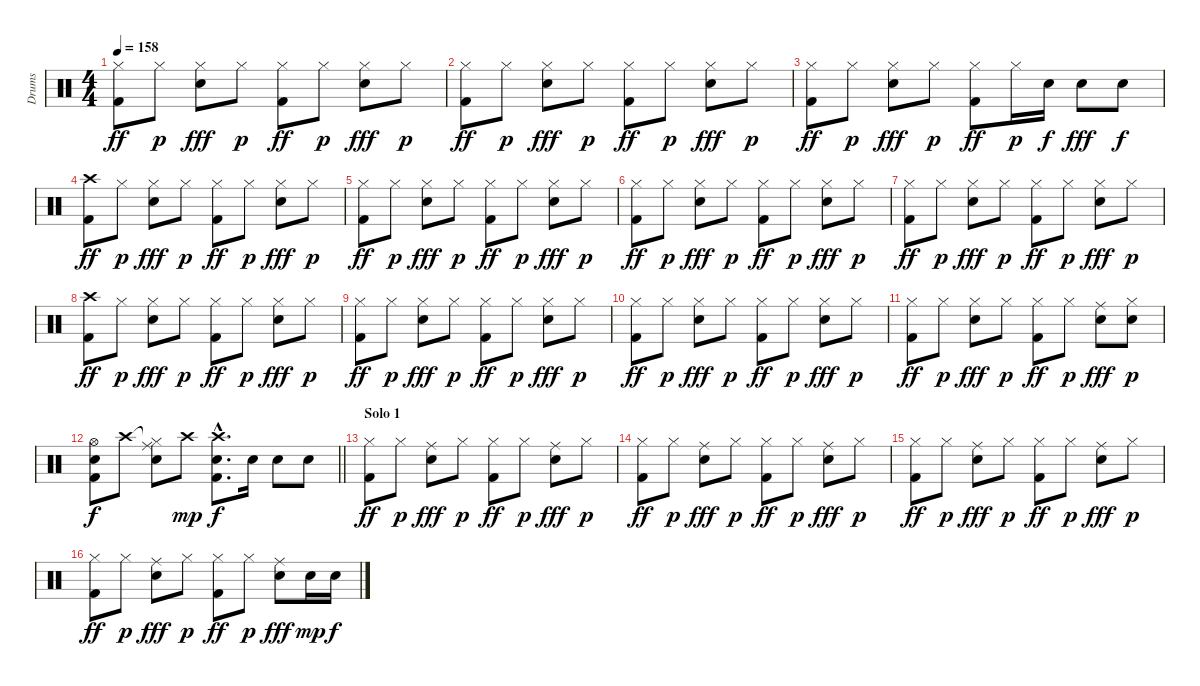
\track ("Drums" "Drums") {instrument percussion}
\staff {score}
\articulation defaults
\ts (4 4)
\tempo 158
\clef neutral
\ks c
("Hi-Hat (closed)" "Kick (hit) 2").8{dy ff} "Hi-Hat (closed)".8{dy p} ("Hi-Hat (closed)" "Snare (hit) 2").8{dy fff} "Hi-Hat (closed)".8{dy p} ("Hi-Hat (closed)" "Kick (hit) 2").8{dy ff} "Hi-Hat (closed)".8{dy p} ("Hi-Hat (closed)" "Snare (hit) 2").8{dy fff} "Hi-Hat (closed)".8{dy p} |
("Hi-Hat (closed)" "Kick (hit) 2").8{dy ff} "Hi-Hat (closed)".8{dy p} ("Hi-Hat (closed)" "Snare (hit) 2").8{dy fff} "Hi-Hat (closed)".8{dy p} ("Hi-Hat (closed)" "Kick (hit) 2").8{dy ff} "Hi-Hat (closed)".8{dy p} ("Hi-Hat (closed)" "Snare (hit) 2").8{dy fff} "Hi-Hat (closed)".8{dy p} |
("Hi-Hat (closed)" "Kick (hit) 2").8{dy ff} "Hi-Hat (closed)".8{dy p} ("Hi-Hat (closed)" "Snare (hit) 2").8{dy fff} "Hi-Hat (closed)".8{dy p} ("Hi-Hat (closed)" "Kick (hit) 2").8{dy ff} "Hi-Hat (closed)".16{dy p} "Snare (hit) 2".16{dy f} "Snare (hit) 2".8{dy fff} "Snare (hit) 2".8{dy f} |
("Crash high (hit)" "Kick (hit) 2").8{dy ff} "Hi-Hat (closed)".8{dy p} ("Hi-Hat (closed)" "Snare (hit) 2").8{dy fff} "Hi-Hat (closed)".8{dy p} ("Hi-Hat (closed)" "Kick (hit) 2").8{dy ff} "Hi-Hat (closed)".8{dy p} ("Hi-Hat (closed)" "Snare (hit) 2").8{dy fff} "Hi-Hat (closed)".8{dy p} |
("Hi-Hat (closed)" "Kick (hit) 2").8{dy ff} "Hi-Hat (closed)".8{dy p} ("Hi-Hat (closed)" "Snare (hit) 2").8{dy fff} "Hi-Hat (closed)".8{dy p} ("Hi-Hat (closed)" "Kick (hit) 2").8{dy ff} "Hi-Hat (closed)".8{dy p} ("Hi-Hat (closed)" "Snare (hit) 2").8{dy fff} "Hi-Hat (closed)".8{dy p} |
("Hi-Hat (closed)" "Kick (hit) 2").8{dy ff} "Hi-Hat (closed)".8{dy p} ("Hi-Hat (closed)" "Snare (hit) 2").8{dy fff} "Hi-Hat (closed)".8{dy p} ("Hi-Hat (closed)" "Kick (hit) 2").8{dy ff} "Hi-Hat (closed)".8{dy p} ("Hi-Hat (closed)" "Snare (hit) 2").8{dy fff} "Hi-Hat (closed)".8{dy p} |
("Hi-Hat (closed)" "Kick (hit) 2").8{dy ff} "Hi-Hat (closed)".8{dy p} ("Hi-Hat (closed)" "Snare (hit) 2").8{dy fff} "Hi-Hat (closed)".8{dy p} ("Hi-Hat (closed)" "Kick (hit) 2").8{dy ff} "Hi-Hat (closed)".8{dy p} ("Hi-Hat (closed)" "Snare (hit) 2").8{dy fff} "Hi-Hat (closed)".8{dy p} |
("Crash high (hit)" "Kick (hit) 2").8{dy ff} "Hi-Hat (closed)".8{dy p} ("Hi-Hat (closed)" "Snare (hit) 2").8{dy fff} "Hi-Hat (closed)".8{dy p} ("Hi-Hat (closed)" "Kick (hit) 2").8{dy ff} "Hi-Hat (closed)".8{dy p} ("Hi-Hat (closed)" "Snare (hit) 2").8{dy fff} "Hi-Hat (closed)".8{dy p} |
("Hi-Hat (closed)" "Kick (hit) 2").8{dy ff} "Hi-Hat (closed)".8{dy p} ("Hi-Hat (closed)" "Snare (hit) 2").8{dy fff} "Hi-Hat (closed)".8{dy p} ("Hi-Hat (closed)" "Kick (hit) 2").8{dy ff} "Hi-Hat (closed)".8{dy p} ("Hi-Hat (closed)" "Snare (hit) 2").8{dy fff} "Hi-Hat (closed)".8{dy p} |
("Hi-Hat (closed)" "Kick (hit) 2").8{dy ff} "Hi-Hat (closed)".8{dy p} ("Hi-Hat (closed)" "Snare (hit) 2").8{dy fff} "Hi-Hat (closed)".8{dy p} ("Hi-Hat (closed)" "Kick (hit) 2").8{dy ff} "Hi-Hat (closed)".8{dy p} ("Hi-Hat (closed)" "Snare (hit) 2").8{dy fff} "Hi-Hat (closed)".8{dy p} |
("Hi-Hat (closed)" "Kick (hit) 2").8{dy ff} "Hi-Hat (closed)".8{dy p} ("Hi-Hat (closed)" "Snare (hit) 2").8{dy fff} "Hi-Hat (closed)".8{dy p} ("Hi-Hat (closed)" "Kick (hit) 2").8{dy ff} "Hi-Hat (closed)".8{dy p} ("Ride (middle)" "Snare (hit) 2").8{dy fff} ("Hi-Hat (closed)" "Snare (hit) 2").8{dy p} |
\barLineRight lightlight
("Hi-Hat (open)" "Snare (hit) 2" "Kick (hit) 2").8{dy f} "Crash high (hit)".8 ("Hi-Hat (closed)"{t} "Snare (hit) 2" "Ride (middle)").8 "Crash high (hit)".8{dy mp} ("Crash high (hit)"{hac} "Snare (hit) 2"{hac} "Kick (hit) 2"{hac}).8{d dy f} "Snare (hit) 2".16 "Snare (hit) 2".8 "Snare (hit) 2".8 |
\section ("" "Solo 1")
("Hi-Hat (closed)" "Kick (hit) 2").8{dy ff} "Hi-Hat (closed)".8{dy p} ("Ride (middle)" "Snare (hit) 2").8{dy fff} "Hi-Hat (closed)".8{dy p} ("Hi-Hat (closed)" "Kick (hit) 2").8{dy ff} "Hi-Hat (closed)".8{dy p} ("Ride (middle)" "Snare (hit) 2").8{dy fff} "Hi-Hat (closed)".8{dy p} |
("Hi-Hat (closed)" "Kick (hit) 2").8{dy ff} "Hi-Hat (closed)".8{dy p} ("Ride (middle)" "Snare (hit) 2").8{dy fff} "Hi-Hat (closed)".8{dy p} ("Hi-Hat (closed)" "Kick (hit) 2").8{dy ff} "Hi-Hat (closed)".8{dy p} ("Ride (middle)" "Snare (hit) 2").8{dy fff} "Hi-Hat (closed)".8{dy p} |
("Hi-Hat (closed)" "Kick (hit) 2").8{dy ff} "Hi-Hat (closed)".8{dy p} ("Ride (middle)" "Snare (hit) 2").8{dy fff} "Hi-Hat (closed)".8{dy p} ("Hi-Hat (closed)" "Kick (hit) 2").8{dy ff} "Hi-Hat (closed)".8{dy p} ("Ride (middle)" "Snare (hit) 2").8{dy fff} "Hi-Hat (closed)".8{dy p} |
("Hi-Hat (closed)" "Kick (hit) 2").8{dy ff} "Hi-Hat (closed)".8{dy p} ("Ride (middle)" "Snare (hit) 2").8{dy fff} "Hi-Hat (closed)".8{dy p} ("Hi-Hat (closed)" "Kick (hit) 2").8{dy ff} "Hi-Hat (closed)".8{dy p} ("Ride (middle)" "Snare (hit) 2").8{dy fff} "Snare (hit) 2".16{dy mp} "Snare (hit) 2".16{dy f}
